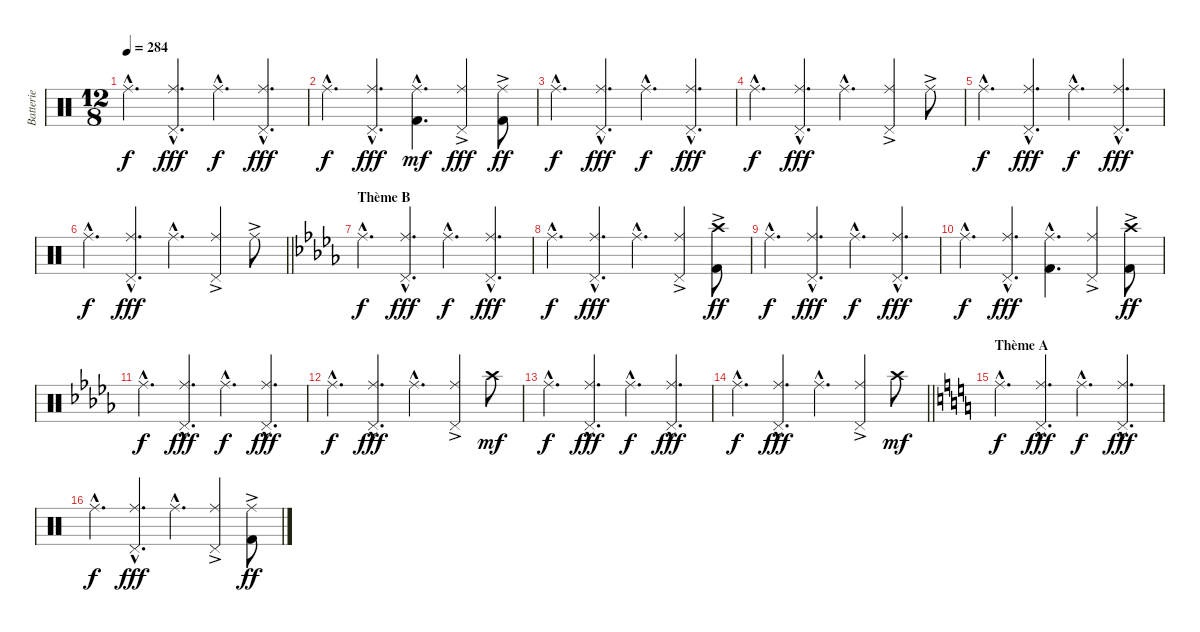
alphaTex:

\track ("Batterie" "Batterie") {instrument percussion}
\staff {score}
\articulation defaults
\ts (12 8)
\tempo 284
\clef neutral
\ks c "Ride (middle)"{hac}.4{d dy f}
("Ride (middle)"{hac} "Pedal Hi-Hat (hit)"{hac}).4{d dy fff} "Ride (middle)"{hac}.4{d dy f} ("Ride (middle)"{hac} "Pedal Hi-Hat (hit)"{hac}).4{d dy fff} |
"Ride (middle)"{hac}.4{d dy f} ("Ride (middle)"{hac} "Pedal Hi-Hat (hit)"{hac}).4{d dy fff} ("Ride (middle)"{hac} "Kick (hit) 2"{hac}).4{d dy mf} ("Ride (middle)" "Pedal Hi-Hat (hit)"{ac}).4{dy fff} ("Ride (middle)"{ac} "Kick (hit) 2"{ac}).8{dy ff} |
"Ride (middle)"{hac}.4{d dy f} ("Ride (middle)"{hac} "Pedal Hi-Hat (hit)"{hac}).4{d dy fff} "Ride (middle)"{hac}.4{d dy f} ("Ride (middle)"{hac} "Pedal Hi-Hat (hit)"{hac}).4{d dy fff} |
"Ride (middle)"{hac}.4{d dy f} ("Ride (middle)"{hac} "Pedal Hi-Hat (hit)"{hac}).4{d dy fff} "Ride (middle)"{hac}.4{d} ("Ride (middle)" "Pedal Hi-Hat (hit)"{ac}).4 "Ride (middle)"{ac}.8 |
"Ride (middle)"{hac}.4{d dy f} ("Ride (middle)"{hac} "Pedal Hi-Hat (hit)"{hac}).4{d dy fff} "Ride (middle)"{hac}.4{d dy f} ("Ride (middle)"{hac} "Pedal Hi-Hat (hit)"{hac}).4{d dy fff} |
\barLineRight lightlight "Ride (middle)"{hac}.4{d dy f}
("Ride (middle)"{hac} "Pedal Hi-Hat (hit)"{hac}).4{d dy fff} "Ride (middle)"{hac}.4{d} ("Ride (middle)" "Pedal Hi-Hat (hit)"{ac}).4 "Ride (middle)"{ac}.8 |
\section ("" "Thème B")
\ks db "Ride (middle)"{hac}.4{d dy f volume 13 balance 8}
("Ride (middle)"{hac} "Pedal Hi-Hat (hit)"{hac}).4{d dy fff} "Ride (middle)"{hac}.4{d dy f} ("Ride (middle)"{hac} "Pedal Hi-Hat (hit)"{hac}).4{d dy fff} |
"Ride (middle)"{hac}.4{d dy f} ("Ride (middle)"{hac} "Pedal Hi-Hat (hit)"{hac}).4{d dy fff} "Ride (middle)"{hac}.4{d} ("Ride (middle)" "Pedal Hi-Hat (hit)"{ac}).4 ("Crash high (hit)" "Kick (hit) 2"{ac}).8{dy ff} |
"Ride (middle)"{hac}.4{d dy f} ("Ride (middle)"{hac} "Pedal Hi-Hat (hit)"{hac}).4{d dy fff} "Ride (middle)"{hac}.4{d dy f} ("Ride (middle)"{hac} "Pedal Hi-Hat (hit)"{hac}).4{d dy fff} |
"Ride (middle)"{hac}.4{d dy f} ("Ride (middle)"{hac} "Pedal Hi-Hat (hit)"{hac}).4{d dy fff} ("Ride (middle)"{hac} "Kick (hit) 2"{hac}).4{d} ("Ride (middle)" "Pedal Hi-Hat (hit)"{ac}).4 ("Crash high (hit)" "Kick (hit) 2"{ac}).8{dy ff} |
"Ride (middle)"{hac}.4{d dy f} ("Ride (middle)"{hac} "Pedal Hi-Hat (hit)"{hac}).4{d dy fff} "Ride (middle)"{hac}.4{d dy f} ("Ride (middle)"{hac} "Pedal Hi-Hat (hit)"{hac}).4{d dy fff} |
"Ride (middle)"{hac}.4{d dy f} ("Ride (middle)"{hac} "Pedal Hi-Hat (hit)"{hac}).4{d dy fff} "Ride (middle)"{hac}.4{d} ("Ride (middle)" "Pedal Hi-Hat (hit)"{ac}).4 "Crash high (hit)".8{dy mf} |
"Ride (middle)"{hac}.4{d dy f} ("Ride (middle)"{hac} "Pedal Hi-Hat (hit)"{hac}).4{d dy fff} "Ride (middle)"{hac}.4{d dy f} ("Ride (middle)"{hac} "Pedal Hi-Hat (hit)"{hac}).4{d dy fff} |
\barLineRight lightlight "Ride (middle)"{hac}.4{d dy f}
("Ride (middle)"{hac} "Pedal Hi-Hat (hit)"{hac}).4{d dy fff} "Ride (middle)"{hac}.4{d} ("Ride (middle)" "Pedal Hi-Hat (hit)"{ac}).4 "Crash high (hit)".8{dy mf} |
\section ("" "Thème A")
\ks c "Ride (middle)"{hac}.4{d dy f volume 12 balance 8}
("Ride (middle)"{hac} "Pedal Hi-Hat (hit)"{hac}).4{d dy fff} "Ride (middle)"{hac}.4{d dy f} ("Ride (middle)"{hac} "Pedal Hi-Hat (hit)"{hac}).4{d dy fff} |
"Ride (middle)"{hac}.4{d dy f} ("Ride (middle)"{hac} "Pedal Hi-Hat (hit)"{hac}).4{d dy fff} "Ride (middle)"{hac}.4{d} ("Ride (middle)" "Pedal Hi-Hat (hit)"{ac}).4 ("Ride (middle)"{ac} "Kick (hit) 2"{ac}).8{dy ff}
